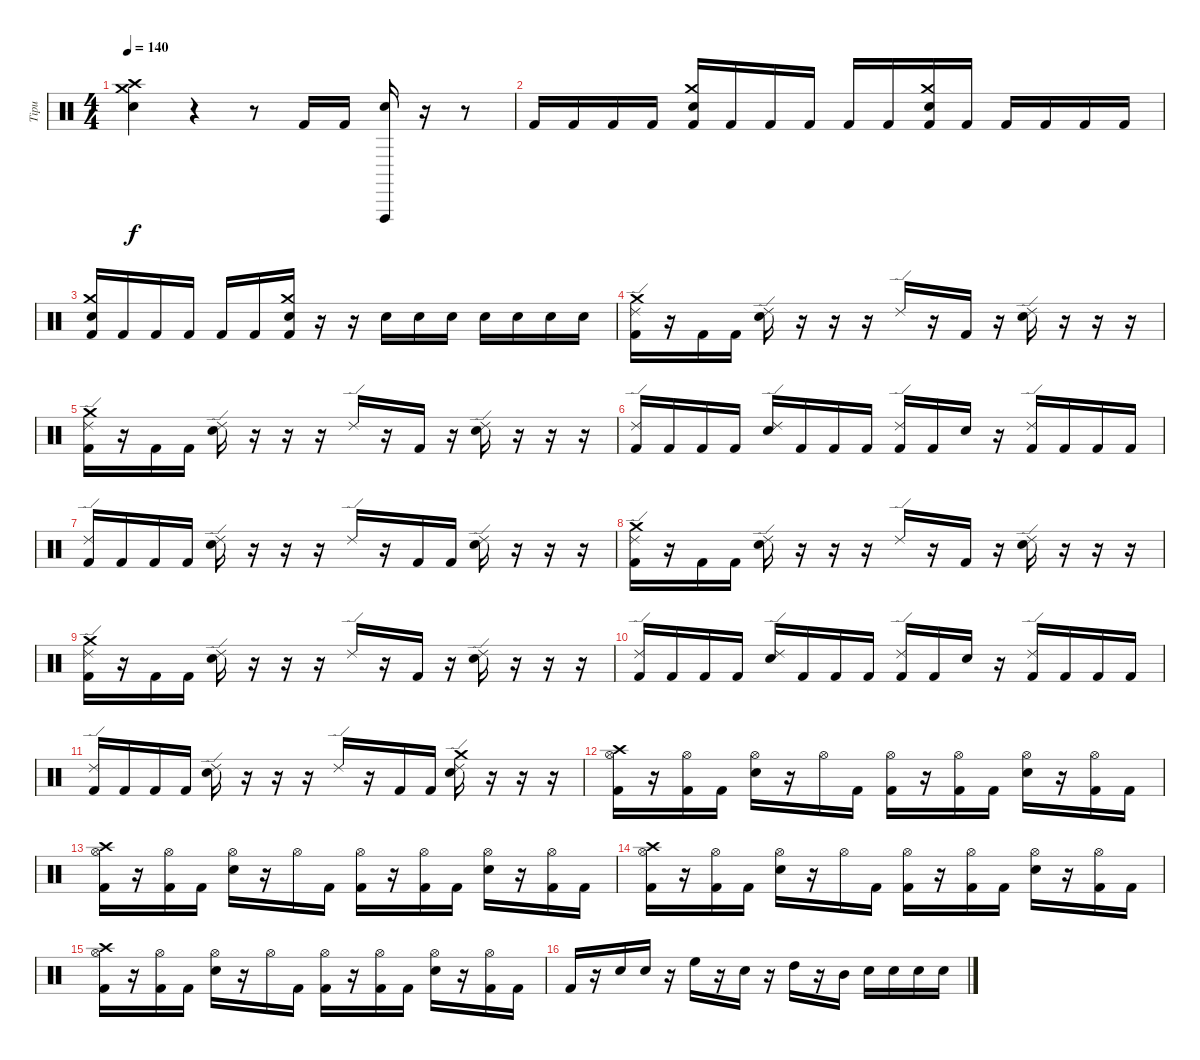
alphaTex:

\track ("Tipu" "Tipu") {instrument percussion}
\staff {score}
\articulation defaults
\ts (4 4)
\tempo 140
\clef neutral
\ks c
("Crash high (hit)" "Electric Snare (hit)" "Crash medium (hit)").4{dy f} r.4 r.8 "Kick (hit) 2".16 "Kick (hit) 2".16 ("Electric Snare (hit)" "Vibraslap (hit)").16 r.16 r.8 |
"Kick (hit) 2".16 "Kick (hit) 2".16 "Kick (hit) 2".16 "Kick (hit) 2".16 ("Electric Snare (hit)" "Crash medium (hit)" "Kick (hit) 2").16 "Kick (hit) 2".16 "Kick (hit) 2".16 "Kick (hit) 2".16 "Kick (hit) 2".16 "Kick (hit) 2".16 ("Electric Snare (hit)" "Crash medium (hit)" "Kick (hit) 2").16 "Kick (hit) 2".16 "Kick (hit) 2".16 "Kick (hit) 2".16 "Kick (hit) 2".16 "Kick (hit) 2".16 |
("Electric Snare (hit)" "Crash medium (hit)" "Kick (hit) 2").16 "Kick (hit) 2".16 "Kick (hit) 2".16 "Kick (hit) 2".16 "Kick (hit) 2".16 "Kick (hit) 2".16 ("Electric Snare (hit)" "Crash medium (hit)" "Kick (hit) 2").16 r.16 r.16 "Electric Snare (hit)".16 "Electric Snare (hit)".16 "Electric Snare (hit)".16 "Electric Snare (hit)".16 "Electric Snare (hit)".16 "Electric Snare (hit)".16 "Electric Snare (hit)".16 |
("Kick (hit) 2" "Ride (edge) 2" "Crash medium (hit)").16 r.16 "Kick (hit) 2".16 "Kick (hit) 2".16 ("Electric Snare (hit)" "Ride (edge) 2").16 r.16 r.16 r.16 "Ride (edge) 2".16 r.16 "Kick (hit) 2".16 r.16 ("Electric Snare (hit)" "Ride (edge) 2").16 r.16 r.16 r.16 |
("Kick (hit) 2" "Ride (edge) 2" "Crash medium (hit)").16 r.16 "Kick (hit) 2".16 "Kick (hit) 2".16 ("Electric Snare (hit)" "Ride (edge) 2").16 r.16 r.16 r.16 "Ride (edge) 2".16 r.16 "Kick (hit) 2".16 r.16 ("Electric Snare (hit)" "Ride (edge) 2").16 r.16 r.16 r.16 |
("Kick (hit) 2" "Ride (edge) 2").16 "Kick (hit) 2".16 "Kick (hit) 2".16 "Kick (hit) 2".16 ("Electric Snare (hit)" "Ride (edge) 2").16 "Kick (hit) 2".16 "Kick (hit) 2".16 "Kick (hit) 2".16 ("Kick (hit) 2" "Ride (edge) 2").16 "Kick (hit) 2".16 "Electric Snare (hit)".16 r.16 ("Kick (hit) 2" "Ride (edge) 2").16 "Kick (hit) 2".16 "Kick (hit) 2".16 "Kick (hit) 2".16 |
("Kick (hit) 2" "Ride (edge) 2").16 "Kick (hit) 2".16 "Kick (hit) 2".16 "Kick (hit) 2".16 ("Electric Snare (hit)" "Ride (edge) 2").16 r.16 r.16 r.16 "Ride (edge) 2".16 r.16 "Kick (hit) 2".16 "Kick (hit) 2".16 ("Electric Snare (hit)" "Ride (edge) 2").16 r.16 r.16 r.16 |
("Kick (hit) 2" "Ride (edge) 2" "Crash medium (hit)").16 r.16 "Kick (hit) 2".16 "Kick (hit) 2".16 ("Electric Snare (hit)" "Ride (edge) 2").16 r.16 r.16 r.16 "Ride (edge) 2".16 r.16 "Kick (hit) 2".16 r.16 ("Electric Snare (hit)" "Ride (edge) 2").16 r.16 r.16 r.16 |
("Kick (hit) 2" "Ride (edge) 2" "Crash medium (hit)").16 r.16 "Kick (hit) 2".16 "Kick (hit) 2".16 ("Electric Snare (hit)" "Ride (edge) 2").16 r.16 r.16 r.16 "Ride (edge) 2".16 r.16 "Kick (hit) 2".16 r.16 ("Electric Snare (hit)" "Ride (edge) 2").16 r.16 r.16 r.16 |
("Kick (hit) 2" "Ride (edge) 2").16 "Kick (hit) 2".16 "Kick (hit) 2".16 "Kick (hit) 2".16 ("Electric Snare (hit)" "Ride (edge) 2").16 "Kick (hit) 2".16 "Kick (hit) 2".16 "Kick (hit) 2".16 ("Kick (hit) 2" "Ride (edge) 2").16 "Kick (hit) 2".16 "Electric Snare (hit)".16 r.16 ("Kick (hit) 2" "Ride (edge) 2").16 "Kick (hit) 2".16 "Kick (hit) 2".16 "Kick (hit) 2".16 |
("Kick (hit) 2" "Ride (edge) 2").16 "Kick (hit) 2".16 "Kick (hit) 2".16 "Kick (hit) 2".16 ("Electric Snare (hit)" "Ride (edge) 2").16 r.16 r.16 r.16 "Ride (edge) 2".16 r.16 "Kick (hit) 2".16 "Kick (hit) 2".16 ("Electric Snare (hit)" "Ride (edge) 2" "Crash medium (hit)").16 r.16 r.16 r.16 |
("Crash high (hit)" "Hi-Hat (open)" "Kick (hit) 2").16 r.16 ("Hi-Hat (open)" "Kick (hit) 2").16 "Kick (hit) 2".16 ("Hi-Hat (open)" "Electric Snare (hit)").16 r.16 "Hi-Hat (open)".16 "Kick (hit) 2".16 ("Hi-Hat (open)" "Kick (hit) 2").16 r.16 ("Hi-Hat (open)" "Kick (hit) 2").16 "Kick (hit) 2".16 ("Hi-Hat (open)" "Electric Snare (hit)").16 r.16 ("Hi-Hat (open)" "Kick (hit) 2").16 "Kick (hit) 2".16 |
("Crash high (hit)" "Hi-Hat (open)" "Kick (hit) 2").16 r.16 ("Hi-Hat (open)" "Kick (hit) 2").16 "Kick (hit) 2".16 ("Hi-Hat (open)" "Electric Snare (hit)").16 r.16 "Hi-Hat (open)".16 "Kick (hit) 2".16 ("Hi-Hat (open)" "Kick (hit) 2").16 r.16 ("Hi-Hat (open)" "Kick (hit) 2").16 "Kick (hit) 2".16 ("Hi-Hat (open)" "Electric Snare (hit)").16 r.16 ("Hi-Hat (open)" "Kick (hit) 2").16 "Kick (hit) 2".16 |
("Crash high (hit)" "Hi-Hat (open)" "Kick (hit) 2").16 r.16 ("Hi-Hat (open)" "Kick (hit) 2").16 "Kick (hit) 2".16 ("Hi-Hat (open)" "Electric Snare (hit)").16 r.16 "Hi-Hat (open)".16 "Kick (hit) 2".16 ("Hi-Hat (open)" "Kick (hit) 2").16 r.16 ("Hi-Hat (open)" "Kick (hit) 2").16 "Kick (hit) 2".16 ("Hi-Hat (open)" "Electric Snare (hit)").16 r.16 ("Hi-Hat (open)" "Kick (hit) 2").16 "Kick (hit) 2".16 |
("Crash high (hit)" "Hi-Hat (open)" "Kick (hit) 2").16 r.16 ("Hi-Hat (open)" "Kick (hit) 2").16 "Kick (hit) 2".16 ("Hi-Hat (open)" "Electric Snare (hit)").16 r.16 "Hi-Hat (open)".16 "Kick (hit) 2".16 ("Hi-Hat (open)" "Kick (hit) 2").16 r.16 ("Hi-Hat (open)" "Kick (hit) 2").16 "Kick (hit) 2".16 ("Hi-Hat (open)" "Electric Snare (hit)").16 r.16 ("Hi-Hat (open)" "Kick (hit) 2").16 "Kick (hit) 2".16 |
"Kick (hit) 2".16 r.16 "Electric Snare (hit)".16 "Electric Snare (hit)".16 r.16 "High Floor Tom (hit)".16 r.16 "Electric Snare (hit)".16 r.16 "High Tom (hit)".16 r.16 "Mid Tom (hit)".16 "Electric Snare (hit)".16 "Electric Snare (hit)".16 "Electric Snare (hit)".16 "Electric Snare (hit)".16
